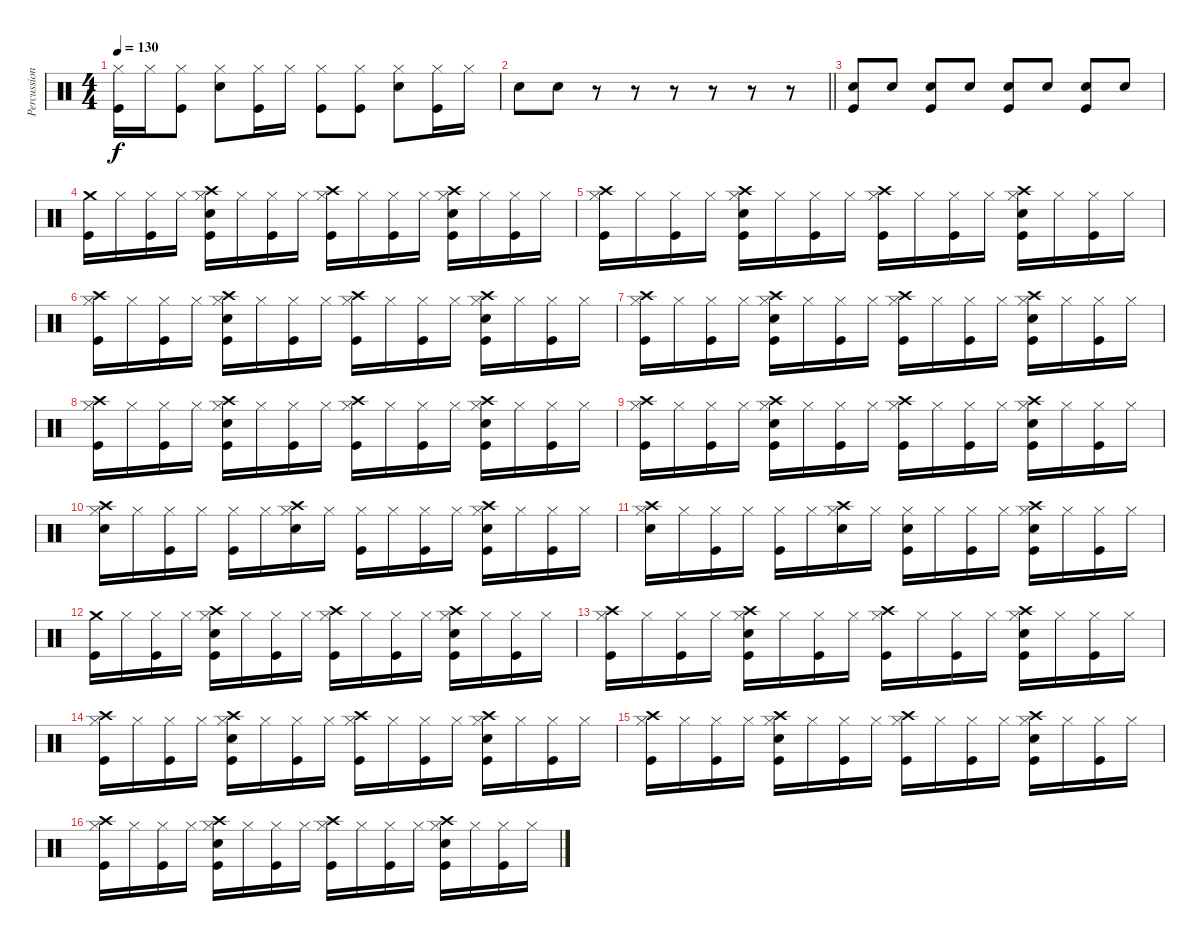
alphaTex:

\track ("Percussion" "Percussion") {instrument percussion}
\staff {score}
\articulation defaults
\ts (4 4)
\tempo 130
\clef neutral
\ks c
("Hi-Hat (closed)" "Kick (hit)").16{dy f} "Hi-Hat (closed)".16 ("Hi-Hat (closed)" "Kick (hit)").8 ("Hi-Hat (closed)" "Electric Snare (hit)").8 ("Hi-Hat (closed)" "Kick (hit)").16 "Hi-Hat (closed)".16 ("Hi-Hat (closed)" "Kick (hit)").8 ("Hi-Hat (closed)" "Kick (hit)").8 ("Hi-Hat (closed)" "Electric Snare (hit)").8 ("Hi-Hat (closed)" "Kick (hit)").16 "Hi-Hat (closed)".16 |
\barLineRight lightlight "Electric Snare (hit)".8 "Electric Snare (hit)".8
r.8 r.8 r.8 r.8 r.8 r.8 |
("Electric Snare (hit)" "Kick (hit)").8 "Electric Snare (hit)".8 ("Electric Snare (hit)" "Kick (hit)").8 "Electric Snare (hit)".8 ("Electric Snare (hit)" "Kick (hit)").8 "Electric Snare (hit)".8 ("Electric Snare (hit)" "Kick (hit)").8 "Electric Snare (hit)".8 |
("Crash medium (hit)" "Kick (hit)").16 "Hi-Hat (closed)".16 ("Hi-Hat (closed)" "Kick (hit)").16 "Hi-Hat (closed)".16 ("Crash high (hit)" "Hi-Hat (closed)" "Electric Snare (hit)" "Kick (hit)").16 "Hi-Hat (closed)".16 ("Hi-Hat (closed)" "Kick (hit)").16 "Hi-Hat (closed)".16 ("Crash high (hit)" "Hi-Hat (closed)" "Kick (hit)").16 "Hi-Hat (closed)".16 ("Hi-Hat (closed)" "Kick (hit)").16 "Hi-Hat (closed)".16 ("Crash high (hit)" "Hi-Hat (closed)" "Electric Snare (hit)" "Kick (hit)").16 "Hi-Hat (closed)".16 ("Hi-Hat (closed)" "Kick (hit)").16 "Hi-Hat (closed)".16 |
("Crash high (hit)" "Hi-Hat (closed)" "Kick (hit)").16 "Hi-Hat (closed)".16 ("Hi-Hat (closed)" "Kick (hit)").16 "Hi-Hat (closed)".16 ("Crash high (hit)" "Hi-Hat (closed)" "Electric Snare (hit)" "Kick (hit)").16 "Hi-Hat (closed)".16 ("Hi-Hat (closed)" "Kick (hit)").16 "Hi-Hat (closed)".16 ("Crash high (hit)" "Hi-Hat (closed)" "Kick (hit)").16 "Hi-Hat (closed)".16 ("Hi-Hat (closed)" "Kick (hit)").16 "Hi-Hat (closed)".16 ("Crash high (hit)" "Hi-Hat (closed)" "Electric Snare (hit)" "Kick (hit)").16 "Hi-Hat (closed)".16 ("Hi-Hat (closed)" "Kick (hit)").16 "Hi-Hat (closed)".16 |
("Crash high (hit)" "Hi-Hat (closed)" "Kick (hit)").16 "Hi-Hat (closed)".16 ("Hi-Hat (closed)" "Kick (hit)").16 "Hi-Hat (closed)".16 ("Crash high (hit)" "Hi-Hat (closed)" "Electric Snare (hit)" "Kick (hit)").16 "Hi-Hat (closed)".16 ("Hi-Hat (closed)" "Kick (hit)").16 "Hi-Hat (closed)".16 ("Crash high (hit)" "Hi-Hat (closed)" "Kick (hit)").16 "Hi-Hat (closed)".16 ("Hi-Hat (closed)" "Kick (hit)").16 "Hi-Hat (closed)".16 ("Crash high (hit)" "Hi-Hat (closed)" "Electric Snare (hit)" "Kick (hit)").16 "Hi-Hat (closed)".16 ("Hi-Hat (closed)" "Kick (hit)").16 "Hi-Hat (closed)".16 |
("Crash high (hit)" "Hi-Hat (closed)" "Kick (hit)").16 "Hi-Hat (closed)".16 ("Hi-Hat (closed)" "Kick (hit)").16 "Hi-Hat (closed)".16 ("Crash high (hit)" "Hi-Hat (closed)" "Electric Snare (hit)" "Kick (hit)").16 "Hi-Hat (closed)".16 ("Hi-Hat (closed)" "Kick (hit)").16 "Hi-Hat (closed)".16 ("Crash high (hit)" "Hi-Hat (closed)" "Kick (hit)").16 "Hi-Hat (closed)".16 ("Hi-Hat (closed)" "Kick (hit)").16 "Hi-Hat (closed)".16 ("Crash high (hit)" "Hi-Hat (closed)" "Electric Snare (hit)" "Kick (hit)").16 "Hi-Hat (closed)".16 ("Hi-Hat (closed)" "Kick (hit)").16 "Hi-Hat (closed)".16 |
("Crash high (hit)" "Hi-Hat (closed)" "Kick (hit)").16 "Hi-Hat (closed)".16 ("Hi-Hat (closed)" "Kick (hit)").16 "Hi-Hat (closed)".16 ("Crash high (hit)" "Hi-Hat (closed)" "Electric Snare (hit)" "Kick (hit)").16 "Hi-Hat (closed)".16 ("Hi-Hat (closed)" "Kick (hit)").16 "Hi-Hat (closed)".16 ("Crash high (hit)" "Hi-Hat (closed)" "Kick (hit)").16 "Hi-Hat (closed)".16 ("Hi-Hat (closed)" "Kick (hit)").16 "Hi-Hat (closed)".16 ("Crash high (hit)" "Hi-Hat (closed)" "Electric Snare (hit)" "Kick (hit)").16 "Hi-Hat (closed)".16 ("Hi-Hat (closed)" "Kick (hit)").16 "Hi-Hat (closed)".16 |
("Crash high (hit)" "Hi-Hat (closed)" "Kick (hit)").16 "Hi-Hat (closed)".16 ("Hi-Hat (closed)" "Kick (hit)").16 "Hi-Hat (closed)".16 ("Crash high (hit)" "Hi-Hat (closed)" "Electric Snare (hit)" "Kick (hit)").16 "Hi-Hat (closed)".16 ("Hi-Hat (closed)" "Kick (hit)").16 "Hi-Hat (closed)".16 ("Crash high (hit)" "Hi-Hat (closed)" "Kick (hit)").16 "Hi-Hat (closed)".16 ("Hi-Hat (closed)" "Kick (hit)").16 "Hi-Hat (closed)".16 ("Crash high (hit)" "Hi-Hat (closed)" "Electric Snare (hit)" "Kick (hit)").16 "Hi-Hat (closed)".16 ("Hi-Hat (closed)" "Kick (hit)").16 "Hi-Hat (closed)".16 |
("Crash high (hit)" "Hi-Hat (closed)" "Electric Snare (hit)").16 "Hi-Hat (closed)".16 ("Hi-Hat (closed)" "Kick (hit)").16 "Hi-Hat (closed)".16 ("Hi-Hat (closed)" "Kick (hit)").16 "Hi-Hat (closed)".16 ("Crash high (hit)" "Hi-Hat (closed)" "Electric Snare (hit)").16 "Hi-Hat (closed)".16 ("Hi-Hat (closed)" "Kick (hit)").16 "Hi-Hat (closed)".16 ("Hi-Hat (closed)" "Kick (hit)").16 "Hi-Hat (closed)".16 ("Crash high (hit)" "Hi-Hat (closed)" "Electric Snare (hit)" "Kick (hit)").16 "Hi-Hat (closed)".16 ("Hi-Hat (closed)" "Kick (hit)").16 "Hi-Hat (closed)".16 |
("Crash high (hit)" "Hi-Hat (closed)" "Electric Snare (hit)").16 "Hi-Hat (closed)".16 ("Hi-Hat (closed)" "Kick (hit)").16 "Hi-Hat (closed)".16 ("Hi-Hat (closed)" "Kick (hit)").16 "Hi-Hat (closed)".16 ("Crash high (hit)" "Hi-Hat (closed)" "Electric Snare (hit)").16 "Hi-Hat (closed)".16 ("Hi-Hat (closed)" "Electric Snare (hit)" "Kick (hit)").16 "Hi-Hat (closed)".16 ("Hi-Hat (closed)" "Kick (hit)").16 "Hi-Hat (closed)".16 ("Crash high (hit)" "Hi-Hat (closed)" "Electric Snare (hit)" "Kick (hit)").16 "Hi-Hat (closed)".16 ("Hi-Hat (closed)" "Kick (hit)").16 "Hi-Hat (closed)".16 |
("Crash medium (hit)" "Kick (hit)").16 "Hi-Hat (closed)".16 ("Hi-Hat (closed)" "Kick (hit)").16 "Hi-Hat (closed)".16 ("Crash high (hit)" "Hi-Hat (closed)" "Electric Snare (hit)" "Kick (hit)").16 "Hi-Hat (closed)".16 ("Hi-Hat (closed)" "Kick (hit)").16 "Hi-Hat (closed)".16 ("Crash high (hit)" "Hi-Hat (closed)" "Kick (hit)").16 "Hi-Hat (closed)".16 ("Hi-Hat (closed)" "Kick (hit)").16 "Hi-Hat (closed)".16 ("Crash high (hit)" "Hi-Hat (closed)" "Electric Snare (hit)" "Kick (hit)").16 "Hi-Hat (closed)".16 ("Hi-Hat (closed)" "Kick (hit)").16 "Hi-Hat (closed)".16 |
("Crash high (hit)" "Hi-Hat (closed)" "Kick (hit)").16 "Hi-Hat (closed)".16 ("Hi-Hat (closed)" "Kick (hit)").16 "Hi-Hat (closed)".16 ("Crash high (hit)" "Hi-Hat (closed)" "Electric Snare (hit)" "Kick (hit)").16 "Hi-Hat (closed)".16 ("Hi-Hat (closed)" "Kick (hit)").16 "Hi-Hat (closed)".16 ("Crash high (hit)" "Hi-Hat (closed)" "Kick (hit)").16 "Hi-Hat (closed)".16 ("Hi-Hat (closed)" "Kick (hit)").16 "Hi-Hat (closed)".16 ("Crash high (hit)" "Hi-Hat (closed)" "Electric Snare (hit)" "Kick (hit)").16 "Hi-Hat (closed)".16 ("Hi-Hat (closed)" "Kick (hit)").16 "Hi-Hat (closed)".16 |
("Crash high (hit)" "Hi-Hat (closed)" "Kick (hit)").16 "Hi-Hat (closed)".16 ("Hi-Hat (closed)" "Kick (hit)").16 "Hi-Hat (closed)".16 ("Crash high (hit)" "Hi-Hat (closed)" "Electric Snare (hit)" "Kick (hit)").16 "Hi-Hat (closed)".16 ("Hi-Hat (closed)" "Kick (hit)").16 "Hi-Hat (closed)".16 ("Crash high (hit)" "Hi-Hat (closed)" "Kick (hit)").16 "Hi-Hat (closed)".16 ("Hi-Hat (closed)" "Kick (hit)").16 "Hi-Hat (closed)".16 ("Crash high (hit)" "Hi-Hat (closed)" "Electric Snare (hit)" "Kick (hit)").16 "Hi-Hat (closed)".16 ("Hi-Hat (closed)" "Kick (hit)").16 "Hi-Hat (closed)".16 |
("Crash high (hit)" "Hi-Hat (closed)" "Kick (hit)").16 "Hi-Hat (closed)".16 ("Hi-Hat (closed)" "Kick (hit)").16 "Hi-Hat (closed)".16 ("Crash high (hit)" "Hi-Hat (closed)" "Electric Snare (hit)" "Kick (hit)").16 "Hi-Hat (closed)".16 ("Hi-Hat (closed)" "Kick (hit)").16 "Hi-Hat (closed)".16 ("Crash high (hit)" "Hi-Hat (closed)" "Kick (hit)").16 "Hi-Hat (closed)".16 ("Hi-Hat (closed)" "Kick (hit)").16 "Hi-Hat (closed)".16 ("Crash high (hit)" "Hi-Hat (closed)" "Electric Snare (hit)" "Kick (hit)").16 "Hi-Hat (closed)".16 ("Hi-Hat (closed)" "Kick (hit)").16 "Hi-Hat (closed)".16 |
("Crash high (hit)" "Hi-Hat (closed)" "Kick (hit)").16 "Hi-Hat (closed)".16 ("Hi-Hat (closed)" "Kick (hit)").16 "Hi-Hat (closed)".16 ("Crash high (hit)" "Hi-Hat (closed)" "Electric Snare (hit)" "Kick (hit)").16 "Hi-Hat (closed)".16 ("Hi-Hat (closed)" "Kick (hit)").16 "Hi-Hat (closed)".16 ("Crash high (hit)" "Hi-Hat (closed)" "Kick (hit)").16 "Hi-Hat (closed)".16 ("Hi-Hat (closed)" "Kick (hit)").16 "Hi-Hat (closed)".16 ("Crash high (hit)" "Hi-Hat (closed)" "Electric Snare (hit)" "Kick (hit)").16 "Hi-Hat (closed)".16 ("Hi-Hat (closed)" "Kick (hit)").16 "Hi-Hat (closed)".16
